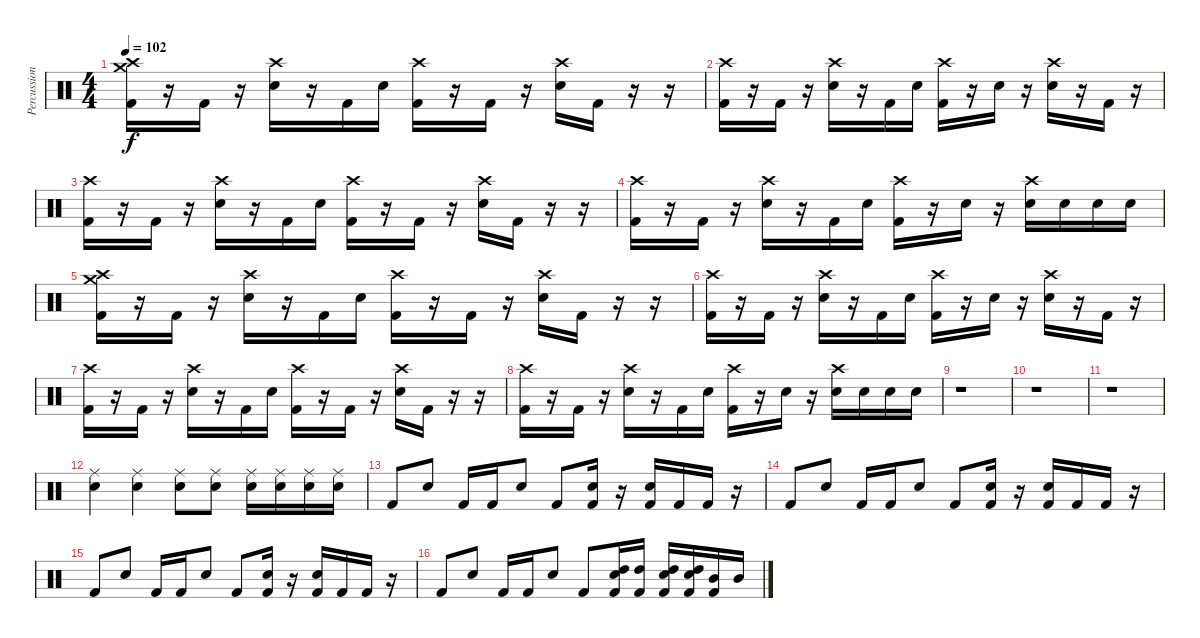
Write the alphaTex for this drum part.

\track ("Percussion" "Percussion") {instrument percussion}
\staff {score}
\articulation defaults
\ts (4 4)
\tempo 102
\clef neutral
\ks c
("Crash medium (hit)" "Crash high (hit)" "Kick (hit) 2").16{dy f} r.16 "Kick (hit) 2".16 r.16 ("Crash high (hit)" "Electric Snare (hit)").16 r.16 "Kick (hit) 2".16 "Electric Snare (hit)".16 ("Crash high (hit)" "Kick (hit) 2").16 r.16 "Kick (hit) 2".16 r.16 ("Crash high (hit)" "Electric Snare (hit)").16 "Kick (hit) 2".16 r.16 r.16 |
("Crash high (hit)" "Kick (hit) 2").16 r.16 "Kick (hit) 2".16 r.16 ("Crash high (hit)" "Electric Snare (hit)").16 r.16 "Kick (hit) 2".16 "Electric Snare (hit)".16 ("Crash high (hit)" "Kick (hit) 2").16 r.16 "Electric Snare (hit)".16 r.16 ("Crash high (hit)" "Electric Snare (hit)").16 r.16 "Kick (hit) 2".16 r.16 |
("Crash high (hit)" "Kick (hit) 2").16 r.16 "Kick (hit) 2".16 r.16 ("Crash high (hit)" "Electric Snare (hit)").16 r.16 "Kick (hit) 2".16 "Electric Snare (hit)".16 ("Crash high (hit)" "Kick (hit) 2").16 r.16 "Kick (hit) 2".16 r.16 ("Crash high (hit)" "Electric Snare (hit)").16 "Kick (hit) 2".16 r.16 r.16 |
("Crash high (hit)" "Kick (hit) 2").16 r.16 "Kick (hit) 2".16 r.16 ("Crash high (hit)" "Electric Snare (hit)").16 r.16 "Kick (hit) 2".16 "Electric Snare (hit)".16 ("Crash high (hit)" "Kick (hit) 2").16 r.16 "Electric Snare (hit)".16 r.16 ("Crash high (hit)" "Electric Snare (hit)").16 "Electric Snare (hit)".16 "Electric Snare (hit)".16 "Electric Snare (hit)".16 |
("Crash medium (hit)" "Crash high (hit)" "Kick (hit) 2").16 r.16 "Kick (hit) 2".16 r.16 ("Crash high (hit)" "Electric Snare (hit)").16 r.16 "Kick (hit) 2".16 "Electric Snare (hit)".16 ("Crash high (hit)" "Kick (hit) 2").16 r.16 "Kick (hit) 2".16 r.16 ("Crash high (hit)" "Electric Snare (hit)").16 "Kick (hit) 2".16 r.16 r.16 |
("Crash high (hit)" "Kick (hit) 2").16 r.16 "Kick (hit) 2".16 r.16 ("Crash high (hit)" "Electric Snare (hit)").16 r.16 "Kick (hit) 2".16 "Electric Snare (hit)".16 ("Crash high (hit)" "Kick (hit) 2").16 r.16 "Electric Snare (hit)".16 r.16 ("Crash high (hit)" "Electric Snare (hit)").16 r.16 "Kick (hit) 2".16 r.16 |
("Crash high (hit)" "Kick (hit) 2").16 r.16 "Kick (hit) 2".16 r.16 ("Crash high (hit)" "Electric Snare (hit)").16 r.16 "Kick (hit) 2".16 "Electric Snare (hit)".16 ("Crash high (hit)" "Kick (hit) 2").16 r.16 "Kick (hit) 2".16 r.16 ("Crash high (hit)" "Electric Snare (hit)").16 "Kick (hit) 2".16 r.16 r.16 |
("Crash high (hit)" "Kick (hit) 2").16 r.16 "Kick (hit) 2".16 r.16 ("Crash high (hit)" "Electric Snare (hit)").16 r.16 "Kick (hit) 2".16 "Electric Snare (hit)".16 ("Crash high (hit)" "Kick (hit) 2").16 r.16 "Electric Snare (hit)".16 r.16 ("Crash high (hit)" "Electric Snare (hit)").16 "Electric Snare (hit)".16 "Electric Snare (hit)".16 "Electric Snare (hit)".16 |
r.1 |
r.1 |
r.1 |
("Ride (middle)" "Electric Snare (hit)").4 ("Ride (middle)" "Electric Snare (hit)").4 ("Ride (middle)" "Electric Snare (hit)").8 ("Ride (middle)" "Electric Snare (hit)").8 ("Ride (middle)" "Electric Snare (hit)").16 ("Ride (middle)" "Electric Snare (hit)").16 ("Ride (middle)" "Electric Snare (hit)").16 ("Ride (middle)" "Electric Snare (hit)").16 |
"Kick (hit) 2".8 "Electric Snare (hit)".8 "Kick (hit) 2".16 "Kick (hit) 2".16 "Electric Snare (hit)".8 "Kick (hit) 2".8 ("Electric Snare (hit)" "Kick (hit) 2").16 r.16 ("Electric Snare (hit)" "Kick (hit) 2").16 "Kick (hit) 2".16 "Kick (hit) 2".16 r.16 |
"Kick (hit) 2".8 "Electric Snare (hit)".8 "Kick (hit) 2".16 "Kick (hit) 2".16 "Electric Snare (hit)".8 "Kick (hit) 2".8 ("Electric Snare (hit)" "Kick (hit) 2").16 r.16 ("Electric Snare (hit)" "Kick (hit) 2").16 "Kick (hit) 2".16 "Kick (hit) 2".16 r.16 |
"Kick (hit) 2".8 "Electric Snare (hit)".8 "Kick (hit) 2".16 "Kick (hit) 2".16 "Electric Snare (hit)".8 "Kick (hit) 2".8 ("Electric Snare (hit)" "Kick (hit) 2").16 r.16 ("Electric Snare (hit)" "Kick (hit) 2").16 "Kick (hit) 2".16 "Kick (hit) 2".16 r.16 |
"Kick (hit) 2".8 "Electric Snare (hit)".8 "Kick (hit) 2".16 "Kick (hit) 2".16 "Electric Snare (hit)".8 "Kick (hit) 2".8 ("High Tom (hit)" "Electric Snare (hit)" "Kick (hit) 2").16 ("High Tom (hit)" "Kick (hit) 2").16 ("High Tom (hit)" "Electric Snare (hit)" "Kick (hit) 2").16 ("High Tom (hit)" "Electric Snare (hit)" "Kick (hit) 2").16 ("Mid Tom (hit)" "Kick (hit) 2").16 "Mid Tom (hit)".16
